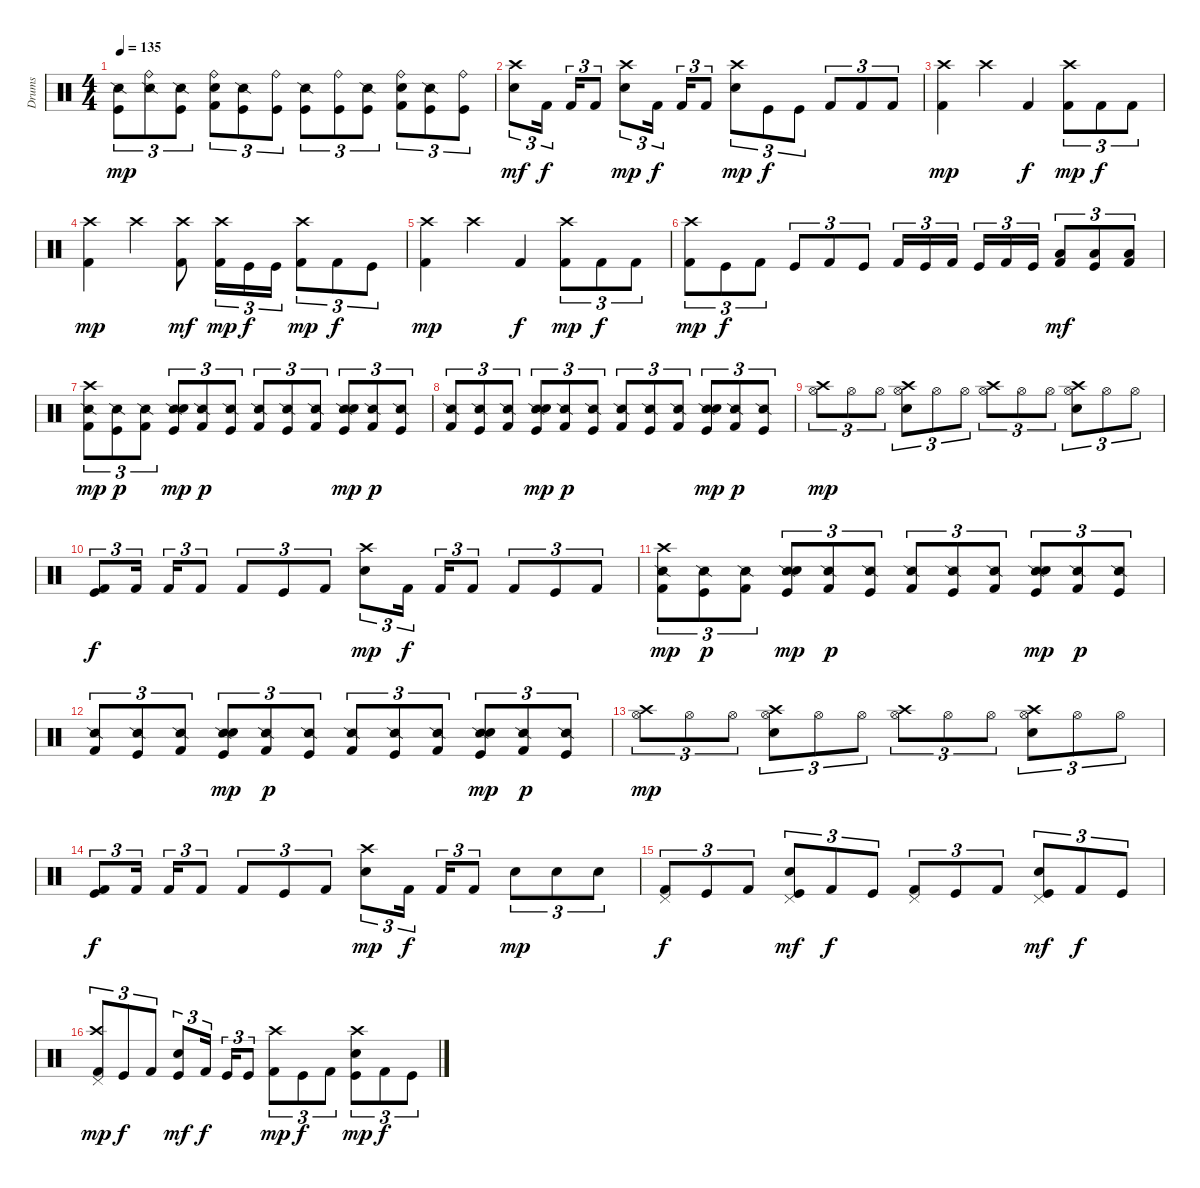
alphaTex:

\track ("Drums" "Drums") {instrument percussion}
\staff {score}
\articulation defaults
\ts (4 4)
\tempo 135
\clef neutral
\ks c
("Kick (hit)" "Snare (side stick) 2").8{tu (3 2) dy mp} ("Snare (side stick) 2" "Ride (bell)").8{tu (3 2)} ("Kick (hit)" "Snare (side stick) 2").8{tu (3 2)} ("Kick (hit) 2" "Ride (bell)" "Snare (hit) 2").8{tu (3 2)} ("Kick (hit)" "Snare (side stick) 2").8{tu (3 2)} ("Kick (hit)" "Ride (bell)").8{tu (3 2)} ("Kick (hit)" "Snare (side stick) 2").8{tu (3 2)} ("Kick (hit)" "Ride (bell)").8{tu (3 2)} ("Kick (hit)" "Snare (side stick) 2").8{tu (3 2)} ("Kick (hit) 2" "Ride (bell)" "Snare (hit) 2").8{tu (3 2)} ("Kick (hit)" "Snare (side stick) 2").8{tu (3 2)} ("Kick (hit)" "Ride (bell)").8{tu (3 2)} |
("Snare (hit) 2" "Crash high (hit)").8{tu (3 2) dy mf} "Kick (hit) 2".16{tu (3 2) dy f} "Kick (hit) 2".16{tu (3 2)} "Kick (hit) 2".8{tu (3 2)} ("Snare (hit) 2" "Crash high (hit)").8{tu (3 2) dy mp} "Kick (hit) 2".16{tu (3 2) dy f} "Kick (hit) 2".16{tu (3 2)} "Kick (hit) 2".8{tu (3 2)} ("Snare (hit) 2" "Crash high (hit)").8{tu (3 2) dy mp} "Kick (hit)".8{tu (3 2) dy f} "Kick (hit)".8{tu (3 2)} "Kick (hit) 2".8{tu (3 2)} "Kick (hit) 2".8{tu (3 2)} "Kick (hit) 2".8{tu (3 2)} |
("Kick (hit) 2" "Crash high (hit)").4{dy mp} "Crash high (hit)".4 "Kick (hit) 2".4{dy f} ("Kick (hit) 2" "Crash high (hit)").8{tu (3 2) dy mp} "Kick (hit) 2".8{tu (3 2) dy f} "Kick (hit) 2".8{tu (3 2)} |
("Kick (hit) 2" "Crash high (hit)").4{dy mp} "Crash high (hit)".4 ("Kick (hit) 2" "Crash high (hit)").8{dy mf} ("Kick (hit) 2" "Crash high (hit)").16{tu (3 2) dy mp} "Kick (hit)".16{tu (3 2) dy f} "Kick (hit)".16{tu (3 2)} ("Kick (hit) 2" "Crash high (hit)").8{tu (3 2) dy mp} "Kick (hit) 2".8{tu (3 2) dy f} "Kick (hit)".8{tu (3 2)} |
("Kick (hit) 2" "Crash high (hit)").4{dy mp} "Crash high (hit)".4 "Kick (hit) 2".4{dy f} ("Kick (hit) 2" "Crash high (hit)").8{tu (3 2) dy mp} "Kick (hit) 2".8{tu (3 2) dy f} "Kick (hit) 2".8{tu (3 2)} |
("Kick (hit) 2" "Crash high (hit)").8{tu (3 2) dy mp} "Kick (hit)".8{tu (3 2) dy f} "Kick (hit) 2".8{tu (3 2)} "Kick (hit)".8{tu (3 2)} "Kick (hit) 2".8{tu (3 2)} "Kick (hit)".8{tu (3 2)} "Kick (hit) 2".16{tu (3 2)} "Kick (hit)".16{tu (3 2)} "Kick (hit) 2".16{tu (3 2)} "Kick (hit)".16{tu (3 2)} "Kick (hit) 2".16{tu (3 2)} "Kick (hit)".16{tu (3 2)} ("Kick (hit) 2" "Low Floor Tom (hit)").8{tu (3 2) dy mf} ("Kick (hit)" "Low Floor Tom (hit)").8{tu (3 2)} ("Kick (hit) 2" "Low Floor Tom (hit)").8{tu (3 2)} |
("Kick (hit) 2" "Snare (side stick) 2" "Crash high (hit)").8{tu (3 2) dy mp} ("Kick (hit)" "Snare (side stick) 2").8{tu (3 2) dy p} ("Kick (hit) 2" "Snare (side stick) 2").8{tu (3 2)} ("Kick (hit)" "Snare (side stick) 2" "Snare (hit) 2").8{tu (3 2) dy mp} ("Kick (hit) 2" "Snare (side stick) 2").8{tu (3 2) dy p} ("Kick (hit)" "Snare (side stick) 2").8{tu (3 2)} ("Kick (hit) 2" "Snare (side stick) 2").8{tu (3 2)} ("Kick (hit)" "Snare (side stick) 2").8{tu (3 2)} ("Kick (hit) 2" "Snare (side stick) 2").8{tu (3 2)} ("Kick (hit)" "Snare (side stick) 2" "Snare (hit) 2").8{tu (3 2) dy mp} ("Kick (hit) 2" "Snare (side stick) 2").8{tu (3 2) dy p} ("Kick (hit)" "Snare (side stick) 2").8{tu (3 2)} |
("Kick (hit) 2" "Snare (side stick) 2").8{tu (3 2)} ("Kick (hit)" "Snare (side stick) 2").8{tu (3 2)} ("Kick (hit) 2" "Snare (side stick) 2").8{tu (3 2)} ("Kick (hit)" "Snare (side stick) 2" "Snare (hit) 2").8{tu (3 2) dy mp} ("Kick (hit) 2" "Snare (side stick) 2").8{tu (3 2) dy p} ("Kick (hit)" "Snare (side stick) 2").8{tu (3 2)} ("Kick (hit) 2" "Snare (side stick) 2").8{tu (3 2)} ("Kick (hit)" "Snare (side stick) 2").8{tu (3 2)} ("Kick (hit) 2" "Snare (side stick) 2").8{tu (3 2)} ("Kick (hit)" "Snare (side stick) 2" "Snare (hit) 2").8{tu (3 2) dy mp} ("Kick (hit) 2" "Snare (side stick) 2").8{tu (3 2) dy p} ("Kick (hit)" "Snare (side stick) 2").8{tu (3 2)} |
("Hi-Hat (open)" "Crash high (hit)").8{tu (3 2) dy mp} "Hi-Hat (open)".8{tu (3 2)} "Hi-Hat (open)".8{tu (3 2)} ("Hi-Hat (open)" "Snare (hit) 2" "Crash high (hit)").8{tu (3 2)} "Hi-Hat (open)".8{tu (3 2)} "Hi-Hat (open)".8{tu (3 2)} ("Hi-Hat (open)" "Crash high (hit)").8{tu (3 2)} "Hi-Hat (open)".8{tu (3 2)} "Hi-Hat (open)".8{tu (3 2)} ("Hi-Hat (open)" "Snare (hit) 2" "Crash high (hit)").8{tu (3 2)} "Hi-Hat (open)".8{tu (3 2)} "Hi-Hat (open)".8{tu (3 2)} |
("Kick (hit) 2" "Kick (hit)").8{tu (3 2) dy f} "Kick (hit) 2".16{tu (3 2)} "Kick (hit) 2".16{tu (3 2)} "Kick (hit) 2".8{tu (3 2)} "Kick (hit) 2".8{tu (3 2)} "Kick (hit)".8{tu (3 2)} "Kick (hit) 2".8{tu (3 2)} ("Snare (hit) 2" "Crash high (hit)").8{tu (3 2) dy mp} "Kick (hit) 2".16{tu (3 2) dy f} "Kick (hit) 2".16{tu (3 2)} "Kick (hit) 2".8{tu (3 2)} "Kick (hit) 2".8{tu (3 2)} "Kick (hit)".8{tu (3 2)} "Kick (hit) 2".8{tu (3 2)} |
("Kick (hit) 2" "Snare (side stick) 2" "Crash high (hit)").8{tu (3 2) dy mp} ("Kick (hit)" "Snare (side stick) 2").8{tu (3 2) dy p} ("Kick (hit) 2" "Snare (side stick) 2").8{tu (3 2)} ("Kick (hit)" "Snare (side stick) 2" "Snare (hit) 2").8{tu (3 2) dy mp} ("Kick (hit) 2" "Snare (side stick) 2").8{tu (3 2) dy p} ("Kick (hit)" "Snare (side stick) 2").8{tu (3 2)} ("Kick (hit) 2" "Snare (side stick) 2").8{tu (3 2)} ("Kick (hit)" "Snare (side stick) 2").8{tu (3 2)} ("Kick (hit) 2" "Snare (side stick) 2").8{tu (3 2)} ("Kick (hit)" "Snare (side stick) 2" "Snare (hit) 2").8{tu (3 2) dy mp} ("Kick (hit) 2" "Snare (side stick) 2").8{tu (3 2) dy p} ("Kick (hit)" "Snare (side stick) 2").8{tu (3 2)} |
("Kick (hit) 2" "Snare (side stick) 2").8{tu (3 2)} ("Kick (hit)" "Snare (side stick) 2").8{tu (3 2)} ("Kick (hit) 2" "Snare (side stick) 2").8{tu (3 2)} ("Kick (hit)" "Snare (side stick) 2" "Snare (hit) 2").8{tu (3 2) dy mp} ("Kick (hit) 2" "Snare (side stick) 2").8{tu (3 2) dy p} ("Kick (hit)" "Snare (side stick) 2").8{tu (3 2)} ("Kick (hit) 2" "Snare (side stick) 2").8{tu (3 2)} ("Kick (hit)" "Snare (side stick) 2").8{tu (3 2)} ("Kick (hit) 2" "Snare (side stick) 2").8{tu (3 2)} ("Kick (hit)" "Snare (side stick) 2" "Snare (hit) 2").8{tu (3 2) dy mp} ("Kick (hit) 2" "Snare (side stick) 2").8{tu (3 2) dy p} ("Kick (hit)" "Snare (side stick) 2").8{tu (3 2)} |
("Hi-Hat (open)" "Crash high (hit)").8{tu (3 2) dy mp} "Hi-Hat (open)".8{tu (3 2)} "Hi-Hat (open)".8{tu (3 2)} ("Hi-Hat (open)" "Snare (hit) 2" "Crash high (hit)").8{tu (3 2)} "Hi-Hat (open)".8{tu (3 2)} "Hi-Hat (open)".8{tu (3 2)} ("Hi-Hat (open)" "Crash high (hit)").8{tu (3 2)} "Hi-Hat (open)".8{tu (3 2)} "Hi-Hat (open)".8{tu (3 2)} ("Hi-Hat (open)" "Snare (hit) 2" "Crash high (hit)").8{tu (3 2)} "Hi-Hat (open)".8{tu (3 2)} "Hi-Hat (open)".8{tu (3 2)} |
("Kick (hit) 2" "Kick (hit)").8{tu (3 2) dy f} "Kick (hit) 2".16{tu (3 2)} "Kick (hit) 2".16{tu (3 2)} "Kick (hit) 2".8{tu (3 2)} "Kick (hit) 2".8{tu (3 2)} "Kick (hit)".8{tu (3 2)} "Kick (hit) 2".8{tu (3 2)} ("Snare (hit) 2" "Crash high (hit)").8{tu (3 2) dy mp} "Kick (hit) 2".16{tu (3 2) dy f} "Kick (hit) 2".16{tu (3 2)} "Kick (hit) 2".8{tu (3 2)} "Snare (hit) 2".8{tu (3 2) dy mp} "Snare (hit) 2".8{tu (3 2)} "Snare (hit) 2".8{tu (3 2)} |
("Kick (hit) 2" "Pedal Hi-Hat (hit)").8{tu (3 2) dy f} "Kick (hit)".8{tu (3 2)} "Kick (hit) 2".8{tu (3 2)} ("Kick (hit)" "Snare (hit) 2" "Pedal Hi-Hat (hit)").8{tu (3 2) dy mf} "Kick (hit) 2".8{tu (3 2) dy f} "Kick (hit)".8{tu (3 2)} ("Kick (hit) 2" "Pedal Hi-Hat (hit)").8{tu (3 2)} "Kick (hit)".8{tu (3 2)} "Kick (hit) 2".8{tu (3 2)} ("Kick (hit)" "Snare (hit) 2" "Pedal Hi-Hat (hit)").8{tu (3 2) dy mf} "Kick (hit) 2".8{tu (3 2) dy f} "Kick (hit)".8{tu (3 2)} |
("Kick (hit) 2" "Pedal Hi-Hat (hit)" "Crash high (hit)").8{tu (3 2) dy mp} "Kick (hit)".8{tu (3 2) dy f} "Kick (hit) 2".8{tu (3 2)} ("Kick (hit)" "Snare (hit) 2").8{tu (3 2) dy mf} "Kick (hit) 2".16{tu (3 2) dy f} "Kick (hit)".16{tu (3 2)} "Kick (hit)".8{tu (3 2)} ("Kick (hit) 2" "Crash high (hit)").8{tu (3 2) dy mp} "Kick (hit)".8{tu (3 2) dy f} "Kick (hit) 2".8{tu (3 2)} ("Kick (hit)" "Snare (hit) 2" "Crash high (hit)").8{tu (3 2) dy mp} "Kick (hit) 2".8{tu (3 2) dy f} "Kick (hit)".8{tu (3 2)}
